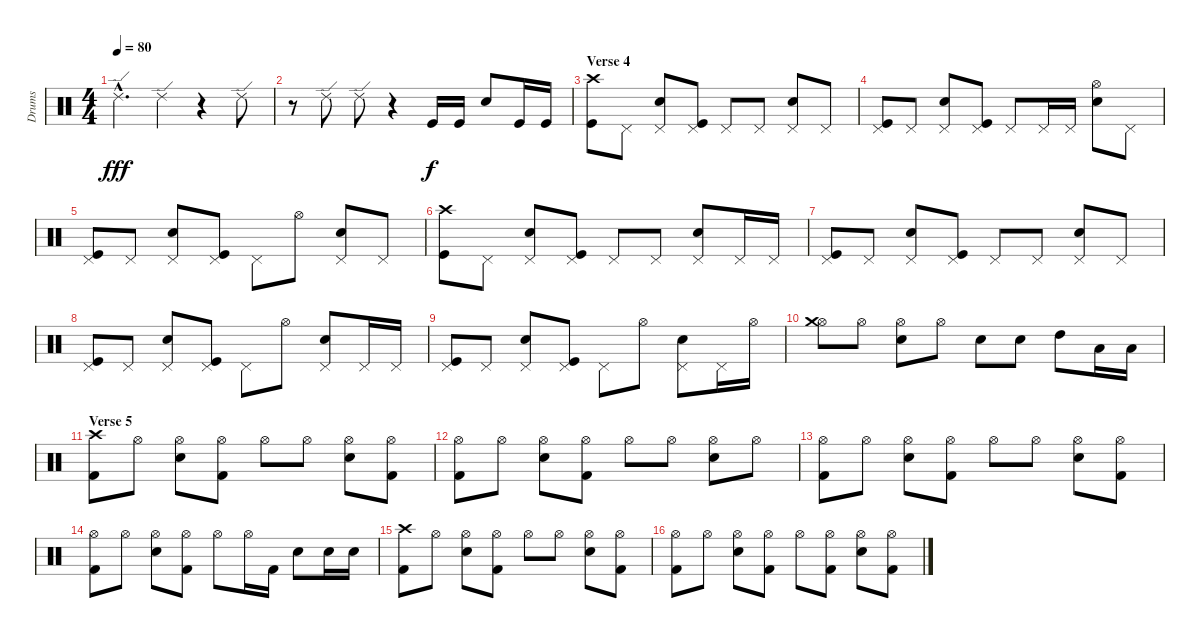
\track ("Drums" "Drums") {instrument percussion}
\staff {score}
\articulation defaults
\ts (4 4)
\tempo 80
\clef neutral
\ks c "Ride (edge) 2"{hac}.4{d dy fff} "Ride (edge) 2".4
r.4 "Ride (edge) 2".8 |
r.8 "Ride (edge) 2".8 "Ride (edge) 2".8 r.4 "Kick (hit)".16{dy f} "Kick (hit)".16 "Snare (hit) 2".8 "Kick (hit)".16 "Kick (hit)".16 |
\section ("" "Verse 4")
("Crash high (hit)" "Kick (hit)").8 "Pedal Hi-Hat (hit)".8 ("Pedal Hi-Hat (hit)" "Snare (hit) 2").8 ("Pedal Hi-Hat (hit)" "Kick (hit)").8 "Pedal Hi-Hat (hit)".8 "Pedal Hi-Hat (hit)".8 ("Pedal Hi-Hat (hit)" "Snare (hit) 2").8 "Pedal Hi-Hat (hit)".8 |
("Pedal Hi-Hat (hit)" "Kick (hit)").8 "Pedal Hi-Hat (hit)".8 ("Pedal Hi-Hat (hit)" "Snare (hit) 2").8 ("Pedal Hi-Hat (hit)" "Kick (hit)").8 "Pedal Hi-Hat (hit)".8 "Pedal Hi-Hat (hit)".16 "Pedal Hi-Hat (hit)".16 ("Hi-Hat (open)" "Snare (hit) 2").8 "Pedal Hi-Hat (hit)".8 |
("Pedal Hi-Hat (hit)" "Kick (hit)").8 "Pedal Hi-Hat (hit)".8 ("Pedal Hi-Hat (hit)" "Snare (hit) 2").8 ("Pedal Hi-Hat (hit)" "Kick (hit)").8 "Pedal Hi-Hat (hit)".8 "Hi-Hat (open)".8 ("Pedal Hi-Hat (hit)" "Snare (hit) 2").8 "Pedal Hi-Hat (hit)".8 |
("Crash high (hit)" "Kick (hit)").8 "Pedal Hi-Hat (hit)".8 ("Pedal Hi-Hat (hit)" "Snare (hit) 2").8 ("Pedal Hi-Hat (hit)" "Kick (hit)").8 "Pedal Hi-Hat (hit)".8 "Pedal Hi-Hat (hit)".8 ("Pedal Hi-Hat (hit)" "Snare (hit) 2").8 "Pedal Hi-Hat (hit)".16 "Pedal Hi-Hat (hit)".16 |
("Pedal Hi-Hat (hit)" "Kick (hit)").8 "Pedal Hi-Hat (hit)".8 ("Pedal Hi-Hat (hit)" "Snare (hit) 2").8 ("Pedal Hi-Hat (hit)" "Kick (hit)").8 "Pedal Hi-Hat (hit)".8 "Pedal Hi-Hat (hit)".8 ("Pedal Hi-Hat (hit)" "Snare (hit) 2").8 "Pedal Hi-Hat (hit)".8 |
("Pedal Hi-Hat (hit)" "Kick (hit)").8 "Pedal Hi-Hat (hit)".8 ("Pedal Hi-Hat (hit)" "Snare (hit) 2").8 ("Pedal Hi-Hat (hit)" "Kick (hit)").8 "Pedal Hi-Hat (hit)".8 "Hi-Hat (open)".8 ("Pedal Hi-Hat (hit)" "Snare (hit) 2").8 "Pedal Hi-Hat (hit)".16 "Pedal Hi-Hat (hit)".16 |
("Pedal Hi-Hat (hit)" "Kick (hit)").8 "Pedal Hi-Hat (hit)".8 ("Pedal Hi-Hat (hit)" "Snare (hit) 2").8 ("Pedal Hi-Hat (hit)" "Kick (hit)").8 "Pedal Hi-Hat (hit)".8 "Hi-Hat (open)".8 ("Pedal Hi-Hat (hit)" "Snare (hit) 2").8 "Pedal Hi-Hat (hit)".16 "Hi-Hat (open)".16 |
("Hi-Hat (open)" "Crash medium (hit)").8 "Hi-Hat (open)".8 ("Hi-Hat (open)" "Snare (hit) 2").8 "Hi-Hat (open)".8 "Snare (hit) 2".8 "Snare (hit) 2".8 "High Tom (hit)".8 "Low Tom (hit)".16 "Low Floor Tom (hit)".16 |
\section ("" "Verse 5")
("Crash high (hit)" "Kick (hit) 2").8 "Hi-Hat (open)".8 ("Hi-Hat (open)" "Snare (hit) 2").8 ("Hi-Hat (open)" "Kick (hit) 2").8 "Hi-Hat (open)".8 "Hi-Hat (open)".8 ("Hi-Hat (open)" "Snare (hit) 2").8 ("Hi-Hat (open)" "Kick (hit) 2").8 |
("Hi-Hat (open)" "Kick (hit) 2").8 "Hi-Hat (open)".8 ("Hi-Hat (open)" "Snare (hit) 2").8 ("Hi-Hat (open)" "Kick (hit) 2").8 "Hi-Hat (open)".8 "Hi-Hat (open)".8 ("Hi-Hat (open)" "Snare (hit) 2").8 "Hi-Hat (open)".8 |
("Hi-Hat (open)" "Kick (hit) 2").8 "Hi-Hat (open)".8 ("Hi-Hat (open)" "Snare (hit) 2").8 ("Hi-Hat (open)" "Kick (hit) 2").8 "Hi-Hat (open)".8 "Hi-Hat (open)".8 ("Hi-Hat (open)" "Snare (hit) 2").8 ("Hi-Hat (open)" "Kick (hit) 2").8 |
("Hi-Hat (open)" "Kick (hit) 2").8 "Hi-Hat (open)".8 ("Hi-Hat (open)" "Snare (hit) 2").8 ("Hi-Hat (open)" "Kick (hit) 2").8 "Hi-Hat (open)".8 "Hi-Hat (open)".16 "Kick (hit) 2".16 "Snare (hit) 2".8 "Snare (hit) 2".16 "Snare (hit) 2".16 |
("Crash high (hit)" "Kick (hit) 2").8 "Hi-Hat (open)".8 ("Hi-Hat (open)" "Snare (hit) 2").8 ("Hi-Hat (open)" "Kick (hit) 2").8 "Hi-Hat (open)".8 "Hi-Hat (open)".8 ("Hi-Hat (open)" "Snare (hit) 2").8 ("Hi-Hat (open)" "Kick (hit) 2").8 |
("Hi-Hat (open)" "Kick (hit) 2").8 "Hi-Hat (open)".8 ("Hi-Hat (open)" "Snare (hit) 2").8 ("Hi-Hat (open)" "Kick (hit) 2").8 "Hi-Hat (open)".8 ("Hi-Hat (open)" "Kick (hit) 2").8 ("Hi-Hat (open)" "Snare (hit) 2").8 ("Hi-Hat (open)" "Kick (hit) 2").8
